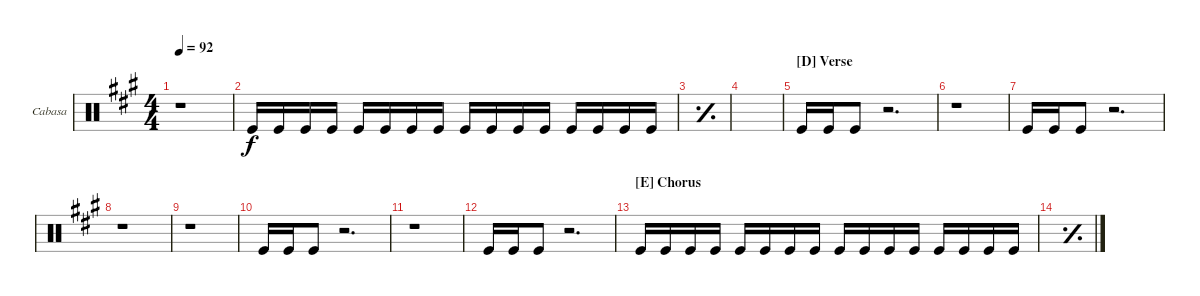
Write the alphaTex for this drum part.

\defaultSystemsLayout 4
\bracketExtendMode groupsimilarinstruments
\firstSystemTrackNameOrientation horizontal
\otherSystemsTrackNameOrientation horizontal
\track ("Cabasa" "Cabasa") {instrument percussion}
\staff {score}
\articulation defaults
\ts (4 4)
\tempo 92
\clef neutral
\ks a
r.1{dy f} |
"Kick (hit)".16 "Kick (hit)".16 "Kick (hit)".16 "Kick (hit)".16 "Kick (hit)".16 "Kick (hit)".16 "Kick (hit)".16 "Kick (hit)".16 "Kick (hit)".16 "Kick (hit)".16 "Kick (hit)".16 "Kick (hit)".16 "Kick (hit)".16 "Kick (hit)".16 "Kick (hit)".16 "Kick (hit)".16 |
\simile simple
|
|
\section ("D" "Verse")
\simile none "Kick (hit)".16 "Kick (hit)".16 "Kick (hit)".8
r.2{d} |
r.1 |
"Kick (hit)".16 "Kick (hit)".16 "Kick (hit)".8 r.2{d} |
r.1 |
r.1 |
"Kick (hit)".16 "Kick (hit)".16 "Kick (hit)".8 r.2{d} |
r.1 |
"Kick (hit)".16 "Kick (hit)".16 "Kick (hit)".8 r.2{d} |
\section ("E" "Chorus")
"Kick (hit)".16 "Kick (hit)".16 "Kick (hit)".16 "Kick (hit)".16 "Kick (hit)".16 "Kick (hit)".16 "Kick (hit)".16 "Kick (hit)".16 "Kick (hit)".16 "Kick (hit)".16 "Kick (hit)".16 "Kick (hit)".16 "Kick (hit)".16 "Kick (hit)".16 "Kick (hit)".16 "Kick (hit)".16 |
\simile simple
